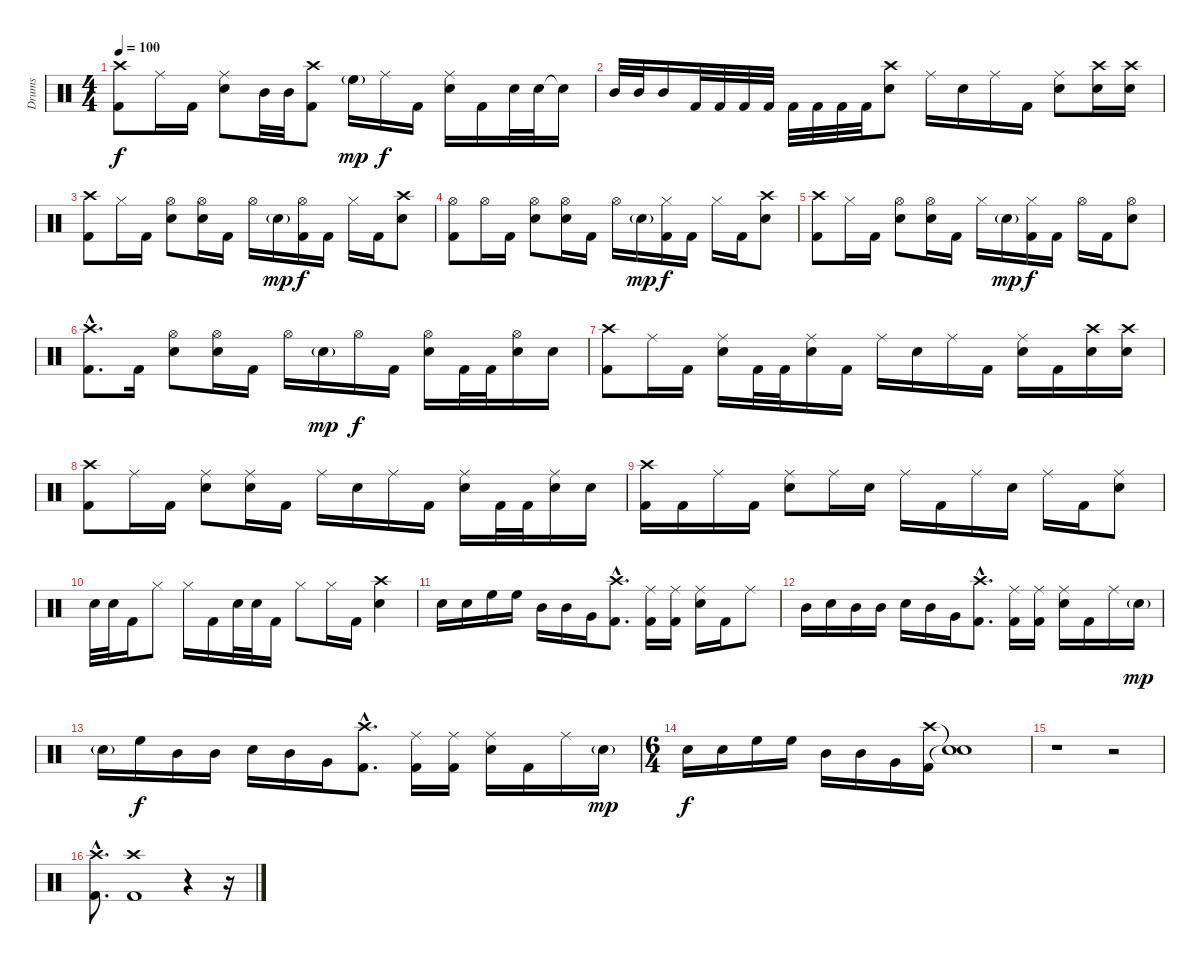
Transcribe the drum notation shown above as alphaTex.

\track ("Drums" "Drums") {instrument percussion}
\staff {score}
\articulation defaults
\ts (4 4)
\tempo 100
\clef neutral
\ks c
("Crash high (hit)" "Kick (hit) 2").8{dy f} "Ride (middle)".16 "Kick (hit) 2".16 ("Ride (middle)" "Snare (hit) 2").8 "Mid Tom (hit)".32 "Mid Tom (hit)".32 ("Crash high (hit)" "Kick (hit) 2").8 "High Floor Tom (hit)"{g}.16{dy mp} "Ride (middle)".16{dy f} "Kick (hit) 2".16 ("Ride (middle)" "Snare (hit) 2").16 "Kick (hit) 2".16 "Snare (hit) 2".32 "Snare (hit) 2".32 "Snare (hit)"{t}.16 |
"Mid Tom (hit)".32 "Mid Tom (hit)".32 "Mid Tom (hit)".16 "Kick (hit) 2".32 "Kick (hit) 2".32 "Kick (hit) 2".32 "Kick (hit) 2".32 "Kick (hit) 2".32 "Kick (hit) 2".32 "Kick (hit) 2".32 "Kick (hit) 2".32 ("Crash high (hit)" "Snare (hit) 2").8 "Ride (middle)".16 "Snare (hit) 2".16 "Ride (middle)".16 "Kick (hit) 2".16 ("Ride (middle)" "Snare (hit) 2").8 ("Crash high (hit)" "Snare (hit) 2").16 ("Crash high (hit)" "Snare (hit) 2").16 |
("Crash high (hit)" "Kick (hit) 2").8 "Hi-Hat (closed)".16 "Kick (hit) 2".16 ("Hi-Hat (open)" "Snare (hit) 2").8 ("Hi-Hat (open)" "Snare (hit) 2").16 "Kick (hit) 2".16 "Hi-Hat (open)".16 "Snare (hit) 2"{g}.16{dy mp} ("Hi-Hat (open)" "Kick (hit) 2").16{dy f} "Kick (hit) 2".16 "Hi-Hat (closed)".16 "Kick (hit) 2".16 ("Crash high (hit)" "Snare (hit) 2").8 |
("Hi-Hat (open)" "Kick (hit) 2").8 "Hi-Hat (open)".16 "Kick (hit) 2".16 ("Hi-Hat (open)" "Snare (hit) 2").8 ("Hi-Hat (open)" "Snare (hit) 2").16 "Kick (hit) 2".16 "Hi-Hat (open)".16 "Snare (hit) 2"{g}.16{dy mp} ("Hi-Hat (closed)" "Kick (hit) 2").16{dy f} "Kick (hit) 2".16 "Hi-Hat (closed)".16 "Kick (hit) 2".16 ("Crash high (hit)" "Snare (hit) 2").8 |
("Crash high (hit)" "Kick (hit) 2").8 "Hi-Hat (closed)".16 "Kick (hit) 2".16 ("Hi-Hat (open)" "Snare (hit) 2").8 ("Hi-Hat (open)" "Snare (hit) 2").16 "Kick (hit) 2".16 "Hi-Hat (closed)".16 "Snare (hit) 2"{g}.16{dy mp} ("Hi-Hat (closed)" "Kick (hit) 2").16{dy f} "Kick (hit) 2".16 "Hi-Hat (open)".16 "Kick (hit) 2".16 ("Hi-Hat (open)" "Snare (hit) 2").8 |
("Crash high (hit)"{hac} "Kick (hit) 2"{hac}).8{d} "Kick (hit) 2".16 ("Hi-Hat (open)" "Snare (hit) 2").8 ("Hi-Hat (open)" "Snare (hit) 2").16 "Kick (hit) 2".16 "Hi-Hat (open)".16 "Snare (hit) 2"{g}.16{dy mp} "Hi-Hat (open)".16{dy f} "Kick (hit) 2".16 ("Hi-Hat (open)" "Snare (hit) 2").16 "Kick (hit) 2".32 "Kick (hit) 2".32 ("Hi-Hat (open)" "Snare (hit) 2").16 "Snare (hit) 2".16 |
("Crash high (hit)" "Kick (hit) 2").8 "Ride (middle)".16 "Kick (hit) 2".16 ("Ride (middle)" "Snare (hit) 2").16 "Kick (hit) 2".32 "Kick (hit) 2".32 ("Ride (middle)" "Snare (hit) 2").16 "Kick (hit) 2".16 "Ride (middle)".16 "Snare (hit) 2".16 "Ride (middle)".16 "Kick (hit) 2".16 ("Ride (middle)" "Snare (hit) 2").16 "Kick (hit) 2".16 ("Crash high (hit)" "Snare (hit) 2").16 ("Crash high (hit)" "Snare (hit) 2").16 |
("Crash high (hit)" "Kick (hit) 2").8 "Ride (middle)".16 "Kick (hit) 2".16 ("Ride (middle)" "Snare (hit) 2").8 ("Ride (middle)" "Snare (hit) 2").16 "Kick (hit) 2".16 "Ride (middle)".16 "Snare (hit) 2".16 "Ride (middle)".16 "Kick (hit) 2".16 ("Ride (middle)" "Snare (hit) 2").16 "Kick (hit) 2".32 "Kick (hit) 2".32 ("Ride (middle)" "Snare (hit) 2").16 "Snare (hit) 2".16 |
("Crash high (hit)" "Kick (hit) 2").16 "Kick (hit) 2".16 "Ride (middle)".16 "Kick (hit) 2".16 ("Ride (middle)" "Snare (hit) 2").8 "Ride (middle)".16 "Snare (hit) 2".16 "Ride (middle)".16 "Kick (hit) 2".16 "Ride (middle)".16 "Snare (hit) 2".16 "Ride (middle)".16 "Kick (hit) 2".16 ("Ride (middle)" "Snare (hit) 2").8 |
"Snare (hit) 2".32 "Snare (hit) 2".32 "Kick (hit) 2".16 "Hi-Hat (closed)".8 "Hi-Hat (closed)".16 "Kick (hit) 2".16 "Snare (hit) 2".32 "Snare (hit) 2".32 "Kick (hit) 2".16 "Hi-Hat (closed)".8 "Hi-Hat (closed)".16 "Kick (hit) 2".16 ("Crash high (hit)" "Snare (hit) 2").4 |
"Snare (hit) 2".16 "Snare (hit) 2".16 "High Floor Tom (hit)".16 "High Floor Tom (hit)".16 "Mid Tom (hit)".16 "Mid Tom (hit)".16 "Very Low Tom (hit)".16 ("Crash high (hit)"{hac} "Kick (hit) 2"{hac}).8{d} ("Ride (middle)" "Kick (hit) 2").16 ("Ride (middle)" "Kick (hit) 2").16 ("Ride (middle)" "Snare (hit) 2").16 "Kick (hit) 2".16 "Ride (middle)".8 |
"Mid Tom (hit)".16 "Snare (hit) 2".16 "Mid Tom (hit)".16 "Mid Tom (hit)".16 "Snare (hit) 2".16 "Mid Tom (hit)".16 "Very Low Tom (hit)".16 ("Crash high (hit)"{hac} "Kick (hit) 2"{hac}).8{d} ("Ride (middle)" "Kick (hit) 2").16 ("Ride (middle)" "Kick (hit) 2").16 ("Ride (middle)" "Snare (hit) 2").16 "Kick (hit) 2".16 "Ride (middle)".16 "Snare (hit) 2"{g}.16{dy mp} |
"Snare (hit) 2"{g}.16 "High Floor Tom (hit)".16{dy f} "Mid Tom (hit)".16 "Mid Tom (hit)".16 "Snare (hit) 2".16 "Mid Tom (hit)".16 "Very Low Tom (hit)".16 ("Crash high (hit)"{hac} "Kick (hit) 2"{hac}).8{d} ("Ride (middle)" "Kick (hit) 2").16 ("Ride (middle)" "Kick (hit) 2").16 ("Ride (middle)" "Snare (hit) 2").16 "Kick (hit) 2".16 "Ride (middle)".16 "Snare (hit) 2"{g}.16{dy mp} |
\ts (6 4)
"Snare (hit) 2".16{dy f} "Snare (hit) 2".16 "High Floor Tom (hit)".16 "High Floor Tom (hit)".16 "Mid Tom (hit)".16 "Mid Tom (hit)".16 "Very Low Tom (hit)".16 ("Crash high (hit)" "Kick (hit) 2").16 ("Snare (hit)"{t} "Snare (hit)"{t}).1 |
r.1 r.2 |
("Crash high (hit)"{hac} "Kick (hit) 2"{hac}).8{d} ("Crash high (hit)" "Kick (hit) 2").1 r.4 r.16
